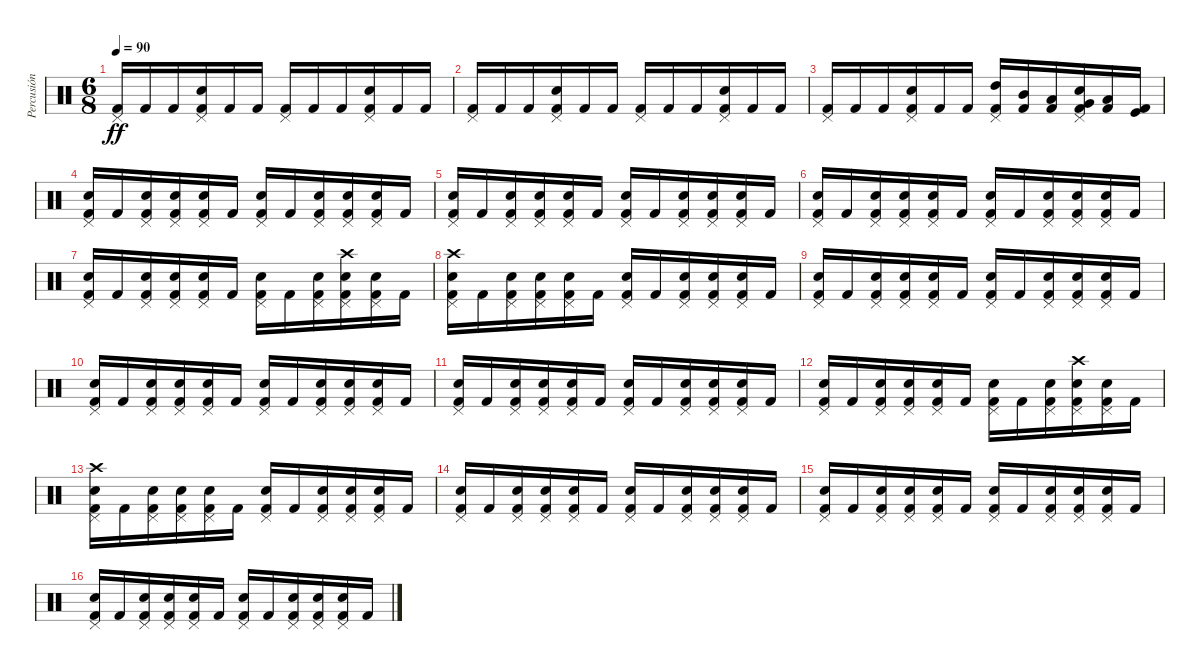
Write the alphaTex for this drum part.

\track ("Percusión" "Percusión") {instrument percussion}
\staff {score}
\articulation defaults
\ts (6 8)
\tempo 90
\clef neutral
\ks c
("Pedal Hi-Hat (hit)" "Kick (hit) 2").16{dy ff} "Kick (hit) 2".16 "Kick (hit) 2".16 ("Pedal Hi-Hat (hit)" "Electric Snare (hit)" "Kick (hit) 2").16 "Kick (hit) 2".16 "Kick (hit) 2".16 ("Pedal Hi-Hat (hit)" "Kick (hit) 2").16 "Kick (hit) 2".16 "Kick (hit) 2".16 ("Pedal Hi-Hat (hit)" "Electric Snare (hit)" "Kick (hit) 2").16 "Kick (hit) 2".16 "Kick (hit) 2".16 |
("Pedal Hi-Hat (hit)" "Kick (hit) 2").16 "Kick (hit) 2".16 "Kick (hit) 2".16 ("Pedal Hi-Hat (hit)" "Electric Snare (hit)" "Kick (hit) 2").16 "Kick (hit) 2".16 "Kick (hit) 2".16 ("Pedal Hi-Hat (hit)" "Kick (hit) 2").16 "Kick (hit) 2".16 "Kick (hit) 2".16 ("Pedal Hi-Hat (hit)" "Electric Snare (hit)" "Kick (hit) 2").16 "Kick (hit) 2".16 "Kick (hit) 2".16 |
("Pedal Hi-Hat (hit)" "Kick (hit) 2").16 "Kick (hit) 2".16 "Kick (hit) 2".16 ("Pedal Hi-Hat (hit)" "Electric Snare (hit)" "Kick (hit) 2").16 "Kick (hit) 2".16 "Kick (hit) 2".16 ("Pedal Hi-Hat (hit)" "High Tom (hit)" "Kick (hit) 2").16 ("Mid Tom (hit)" "Kick (hit) 2").16 ("Low Tom (hit)" "Kick (hit) 2").16 ("Pedal Hi-Hat (hit)" "Electric Snare (hit)" "Very Low Tom (hit)" "Kick (hit) 2").16 ("Low Floor Tom (hit)" "Kick (hit) 2").16 ("Kick (hit)" "Kick (hit) 2").16 |
("Pedal Hi-Hat (hit)" "Electric Snare (hit)" "Kick (hit) 2").16 "Kick (hit) 2".16 ("Pedal Hi-Hat (hit)" "Electric Snare (hit)" "Kick (hit) 2").16 ("Pedal Hi-Hat (hit)" "Electric Snare (hit)" "Kick (hit) 2").16 ("Pedal Hi-Hat (hit)" "Electric Snare (hit)" "Kick (hit) 2").16 "Kick (hit) 2".16 ("Pedal Hi-Hat (hit)" "Electric Snare (hit)" "Kick (hit) 2").16 "Kick (hit) 2".16 ("Pedal Hi-Hat (hit)" "Electric Snare (hit)" "Kick (hit) 2").16 ("Pedal Hi-Hat (hit)" "Electric Snare (hit)" "Kick (hit) 2").16 ("Pedal Hi-Hat (hit)" "Electric Snare (hit)" "Kick (hit) 2").16 "Kick (hit) 2".16 |
("Pedal Hi-Hat (hit)" "Electric Snare (hit)" "Kick (hit) 2").16 "Kick (hit) 2".16 ("Pedal Hi-Hat (hit)" "Electric Snare (hit)" "Kick (hit) 2").16 ("Pedal Hi-Hat (hit)" "Electric Snare (hit)" "Kick (hit) 2").16 ("Pedal Hi-Hat (hit)" "Electric Snare (hit)" "Kick (hit) 2").16 "Kick (hit) 2".16 ("Pedal Hi-Hat (hit)" "Electric Snare (hit)" "Kick (hit) 2").16 "Kick (hit) 2".16 ("Pedal Hi-Hat (hit)" "Electric Snare (hit)" "Kick (hit) 2").16 ("Pedal Hi-Hat (hit)" "Electric Snare (hit)" "Kick (hit) 2").16 ("Pedal Hi-Hat (hit)" "Electric Snare (hit)" "Kick (hit) 2").16 "Kick (hit) 2".16 |
("Pedal Hi-Hat (hit)" "Electric Snare (hit)" "Kick (hit) 2").16 "Kick (hit) 2".16 ("Pedal Hi-Hat (hit)" "Electric Snare (hit)" "Kick (hit) 2").16 ("Pedal Hi-Hat (hit)" "Electric Snare (hit)" "Kick (hit) 2").16 ("Pedal Hi-Hat (hit)" "Electric Snare (hit)" "Kick (hit) 2").16 "Kick (hit) 2".16 ("Pedal Hi-Hat (hit)" "Electric Snare (hit)" "Kick (hit) 2").16 "Kick (hit) 2".16 ("Pedal Hi-Hat (hit)" "Electric Snare (hit)" "Kick (hit) 2").16 ("Pedal Hi-Hat (hit)" "Electric Snare (hit)" "Kick (hit) 2").16 ("Pedal Hi-Hat (hit)" "Electric Snare (hit)" "Kick (hit) 2").16 "Kick (hit) 2".16 |
("Pedal Hi-Hat (hit)" "Electric Snare (hit)" "Kick (hit) 2").16 "Kick (hit) 2".16 ("Pedal Hi-Hat (hit)" "Electric Snare (hit)" "Kick (hit) 2").16 ("Pedal Hi-Hat (hit)" "Electric Snare (hit)" "Kick (hit) 2").16 ("Pedal Hi-Hat (hit)" "Electric Snare (hit)" "Kick (hit) 2").16 "Kick (hit) 2".16 ("Pedal Hi-Hat (hit)" "Electric Snare (hit)" "Kick (hit) 2").16 "Kick (hit) 2".16 ("Pedal Hi-Hat (hit)" "Electric Snare (hit)" "Kick (hit) 2").16 ("Crash high (hit)" "Pedal Hi-Hat (hit)" "Electric Snare (hit)" "Kick (hit) 2").16 ("Pedal Hi-Hat (hit)" "Electric Snare (hit)" "Kick (hit) 2").16 "Kick (hit) 2".16 |
("Crash high (hit)" "Pedal Hi-Hat (hit)" "Electric Snare (hit)" "Kick (hit) 2").16 "Kick (hit) 2".16 ("Pedal Hi-Hat (hit)" "Electric Snare (hit)" "Kick (hit) 2").16 ("Pedal Hi-Hat (hit)" "Electric Snare (hit)" "Kick (hit) 2").16 ("Pedal Hi-Hat (hit)" "Electric Snare (hit)" "Kick (hit) 2").16 "Kick (hit) 2".16 ("Pedal Hi-Hat (hit)" "Electric Snare (hit)" "Kick (hit) 2").16 "Kick (hit) 2".16 ("Pedal Hi-Hat (hit)" "Electric Snare (hit)" "Kick (hit) 2").16 ("Pedal Hi-Hat (hit)" "Electric Snare (hit)" "Kick (hit) 2").16 ("Pedal Hi-Hat (hit)" "Electric Snare (hit)" "Kick (hit) 2").16 "Kick (hit) 2".16 |
("Pedal Hi-Hat (hit)" "Electric Snare (hit)" "Kick (hit) 2").16 "Kick (hit) 2".16 ("Pedal Hi-Hat (hit)" "Electric Snare (hit)" "Kick (hit) 2").16 ("Pedal Hi-Hat (hit)" "Electric Snare (hit)" "Kick (hit) 2").16 ("Pedal Hi-Hat (hit)" "Electric Snare (hit)" "Kick (hit) 2").16 "Kick (hit) 2".16 ("Pedal Hi-Hat (hit)" "Electric Snare (hit)" "Kick (hit) 2").16 "Kick (hit) 2".16 ("Pedal Hi-Hat (hit)" "Electric Snare (hit)" "Kick (hit) 2").16 ("Pedal Hi-Hat (hit)" "Electric Snare (hit)" "Kick (hit) 2").16 ("Pedal Hi-Hat (hit)" "Electric Snare (hit)" "Kick (hit) 2").16 "Kick (hit) 2".16 |
("Pedal Hi-Hat (hit)" "Electric Snare (hit)" "Kick (hit) 2").16 "Kick (hit) 2".16 ("Pedal Hi-Hat (hit)" "Electric Snare (hit)" "Kick (hit) 2").16 ("Pedal Hi-Hat (hit)" "Electric Snare (hit)" "Kick (hit) 2").16 ("Pedal Hi-Hat (hit)" "Electric Snare (hit)" "Kick (hit) 2").16 "Kick (hit) 2".16 ("Pedal Hi-Hat (hit)" "Electric Snare (hit)" "Kick (hit) 2").16 "Kick (hit) 2".16 ("Pedal Hi-Hat (hit)" "Electric Snare (hit)" "Kick (hit) 2").16 ("Pedal Hi-Hat (hit)" "Electric Snare (hit)" "Kick (hit) 2").16 ("Pedal Hi-Hat (hit)" "Electric Snare (hit)" "Kick (hit) 2").16 "Kick (hit) 2".16 |
("Pedal Hi-Hat (hit)" "Electric Snare (hit)" "Kick (hit) 2").16 "Kick (hit) 2".16 ("Pedal Hi-Hat (hit)" "Electric Snare (hit)" "Kick (hit) 2").16 ("Pedal Hi-Hat (hit)" "Electric Snare (hit)" "Kick (hit) 2").16 ("Pedal Hi-Hat (hit)" "Electric Snare (hit)" "Kick (hit) 2").16 "Kick (hit) 2".16 ("Pedal Hi-Hat (hit)" "Electric Snare (hit)" "Kick (hit) 2").16 "Kick (hit) 2".16 ("Pedal Hi-Hat (hit)" "Electric Snare (hit)" "Kick (hit) 2").16 ("Pedal Hi-Hat (hit)" "Electric Snare (hit)" "Kick (hit) 2").16 ("Pedal Hi-Hat (hit)" "Electric Snare (hit)" "Kick (hit) 2").16 "Kick (hit) 2".16 |
("Pedal Hi-Hat (hit)" "Electric Snare (hit)" "Kick (hit) 2").16 "Kick (hit) 2".16 ("Pedal Hi-Hat (hit)" "Electric Snare (hit)" "Kick (hit) 2").16 ("Pedal Hi-Hat (hit)" "Electric Snare (hit)" "Kick (hit) 2").16 ("Pedal Hi-Hat (hit)" "Electric Snare (hit)" "Kick (hit) 2").16 "Kick (hit) 2".16 ("Pedal Hi-Hat (hit)" "Electric Snare (hit)" "Kick (hit) 2").16 "Kick (hit) 2".16 ("Pedal Hi-Hat (hit)" "Electric Snare (hit)" "Kick (hit) 2").16 ("Crash high (hit)" "Pedal Hi-Hat (hit)" "Electric Snare (hit)" "Kick (hit) 2").16 ("Pedal Hi-Hat (hit)" "Electric Snare (hit)" "Kick (hit) 2").16 "Kick (hit) 2".16 |
("Crash high (hit)" "Pedal Hi-Hat (hit)" "Electric Snare (hit)" "Kick (hit) 2").16 "Kick (hit) 2".16 ("Pedal Hi-Hat (hit)" "Electric Snare (hit)" "Kick (hit) 2").16 ("Pedal Hi-Hat (hit)" "Electric Snare (hit)" "Kick (hit) 2").16 ("Pedal Hi-Hat (hit)" "Electric Snare (hit)" "Kick (hit) 2").16 "Kick (hit) 2".16 ("Pedal Hi-Hat (hit)" "Electric Snare (hit)" "Kick (hit) 2").16 "Kick (hit) 2".16 ("Pedal Hi-Hat (hit)" "Electric Snare (hit)" "Kick (hit) 2").16 ("Pedal Hi-Hat (hit)" "Electric Snare (hit)" "Kick (hit) 2").16 ("Pedal Hi-Hat (hit)" "Electric Snare (hit)" "Kick (hit) 2").16 "Kick (hit) 2".16 |
("Pedal Hi-Hat (hit)" "Electric Snare (hit)" "Kick (hit) 2").16 "Kick (hit) 2".16 ("Pedal Hi-Hat (hit)" "Electric Snare (hit)" "Kick (hit) 2").16 ("Pedal Hi-Hat (hit)" "Electric Snare (hit)" "Kick (hit) 2").16 ("Pedal Hi-Hat (hit)" "Electric Snare (hit)" "Kick (hit) 2").16 "Kick (hit) 2".16 ("Pedal Hi-Hat (hit)" "Electric Snare (hit)" "Kick (hit) 2").16 "Kick (hit) 2".16 ("Pedal Hi-Hat (hit)" "Electric Snare (hit)" "Kick (hit) 2").16 ("Pedal Hi-Hat (hit)" "Electric Snare (hit)" "Kick (hit) 2").16 ("Pedal Hi-Hat (hit)" "Electric Snare (hit)" "Kick (hit) 2").16 "Kick (hit) 2".16 |
("Pedal Hi-Hat (hit)" "Electric Snare (hit)" "Kick (hit) 2").16 "Kick (hit) 2".16 ("Pedal Hi-Hat (hit)" "Electric Snare (hit)" "Kick (hit) 2").16 ("Pedal Hi-Hat (hit)" "Electric Snare (hit)" "Kick (hit) 2").16 ("Pedal Hi-Hat (hit)" "Electric Snare (hit)" "Kick (hit) 2").16 "Kick (hit) 2".16 ("Pedal Hi-Hat (hit)" "Electric Snare (hit)" "Kick (hit) 2").16 "Kick (hit) 2".16 ("Pedal Hi-Hat (hit)" "Electric Snare (hit)" "Kick (hit) 2").16 ("Pedal Hi-Hat (hit)" "Electric Snare (hit)" "Kick (hit) 2").16 ("Pedal Hi-Hat (hit)" "Electric Snare (hit)" "Kick (hit) 2").16 "Kick (hit) 2".16 |
("Pedal Hi-Hat (hit)" "Electric Snare (hit)" "Kick (hit) 2").16 "Kick (hit) 2".16 ("Pedal Hi-Hat (hit)" "Electric Snare (hit)" "Kick (hit) 2").16 ("Pedal Hi-Hat (hit)" "Electric Snare (hit)" "Kick (hit) 2").16 ("Pedal Hi-Hat (hit)" "Electric Snare (hit)" "Kick (hit) 2").16 "Kick (hit) 2".16 ("Pedal Hi-Hat (hit)" "Electric Snare (hit)" "Kick (hit) 2").16 "Kick (hit) 2".16 ("Pedal Hi-Hat (hit)" "Electric Snare (hit)" "Kick (hit) 2").16 ("Pedal Hi-Hat (hit)" "Electric Snare (hit)" "Kick (hit) 2").16 ("Pedal Hi-Hat (hit)" "Electric Snare (hit)" "Kick (hit) 2").16 "Kick (hit) 2".16
